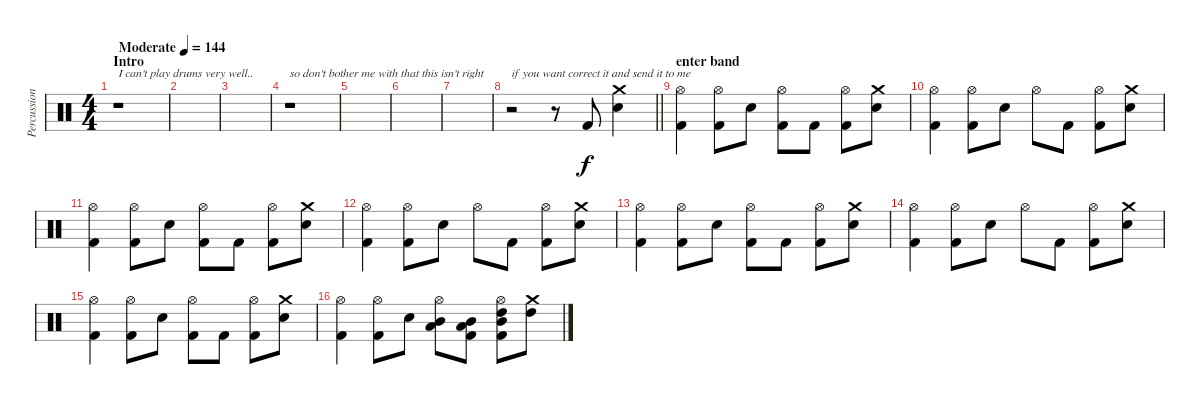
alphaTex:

\track ("Percussion" "Percussion") {instrument percussion}
\staff {score}
\articulation defaults
\ts (4 4)
\section ("" "Intro")
\tempo (144 "Moderate")
\clef neutral
\ks c
r.1{txt "I can't play drums very well.." dy f} |
|
|
r.1{txt "so don't bother me with that this isn't right"} |
|
|
|
\barLineRight lightlight
r.2{txt "if you want correct it and send it to me"} r.8 "Kick (hit) 2".8 ("Electric Snare (hit)" "Crash medium (hit)").4 |
\section ("" "enter band")
("Kick (hit) 2" "Hi-Hat (open)").4 ("Kick (hit) 2" "Hi-Hat (open)").8 "Electric Snare (hit)".8 ("Kick (hit) 2" "Hi-Hat (open)").8 "Kick (hit) 2".8 ("Kick (hit) 2" "Hi-Hat (open)").8 ("Electric Snare (hit)" "Crash medium (hit)").8 |
("Kick (hit) 2" "Hi-Hat (open)").4 ("Kick (hit) 2" "Hi-Hat (open)").8 "Electric Snare (hit)".8 "Hi-Hat (open)".8 "Kick (hit) 2".8 ("Kick (hit) 2" "Hi-Hat (open)").8 ("Electric Snare (hit)" "Crash medium (hit)").8 |
("Kick (hit) 2" "Hi-Hat (open)").4 ("Kick (hit) 2" "Hi-Hat (open)").8 "Electric Snare (hit)".8 ("Kick (hit) 2" "Hi-Hat (open)").8 "Kick (hit) 2".8 ("Kick (hit) 2" "Hi-Hat (open)").8 ("Electric Snare (hit)" "Crash medium (hit)").8 |
("Kick (hit) 2" "Hi-Hat (open)").4 ("Kick (hit) 2" "Hi-Hat (open)").8 "Electric Snare (hit)".8 "Hi-Hat (open)".8 "Kick (hit) 2".8 ("Kick (hit) 2" "Hi-Hat (open)").8 ("Electric Snare (hit)" "Crash medium (hit)").8 |
("Kick (hit) 2" "Hi-Hat (open)").4 ("Kick (hit) 2" "Hi-Hat (open)").8 "Electric Snare (hit)".8 ("Kick (hit) 2" "Hi-Hat (open)").8 "Kick (hit) 2".8 ("Kick (hit) 2" "Hi-Hat (open)").8 ("Electric Snare (hit)" "Crash medium (hit)").8 |
("Kick (hit) 2" "Hi-Hat (open)").4 ("Kick (hit) 2" "Hi-Hat (open)").8 "Electric Snare (hit)".8 "Hi-Hat (open)".8 "Kick (hit) 2".8 ("Kick (hit) 2" "Hi-Hat (open)").8 ("Electric Snare (hit)" "Crash medium (hit)").8 |
("Kick (hit) 2" "Hi-Hat (open)").4 ("Kick (hit) 2" "Hi-Hat (open)").8 "Electric Snare (hit)".8 ("Kick (hit) 2" "Hi-Hat (open)").8 "Kick (hit) 2".8 ("Kick (hit) 2" "Hi-Hat (open)").8 ("Electric Snare (hit)" "Crash medium (hit)").8 |
("Kick (hit) 2" "Hi-Hat (open)").4 ("Kick (hit) 2" "Hi-Hat (open)").8 "Electric Snare (hit)".8 ("Hi-Hat (open)" "Low Tom (hit)" "Mid Tom (hit)").8 ("Kick (hit) 2" "Low Tom (hit)" "Mid Tom (hit)").8 ("Kick (hit) 2" "Hi-Hat (open)" "Mid Tom (hit)" "High Tom (hit)").8 ("Crash medium (hit)" "High Tom (hit)").8
